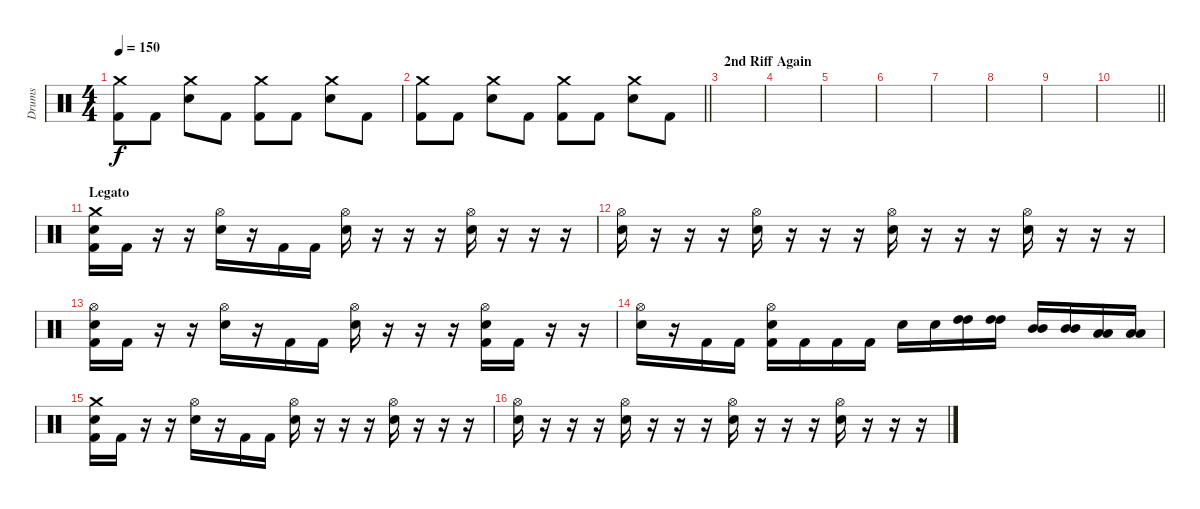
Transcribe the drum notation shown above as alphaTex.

\track ("Drums" "Drums") {instrument percussion}
\staff {score}
\articulation defaults
\ts (4 4)
\tempo 150
\clef neutral
\ks c
("Crash medium (hit)" "Kick (hit) 2").8{dy f} "Kick (hit) 2".8 ("Crash medium (hit)" "Electric Snare (hit)").8 "Kick (hit) 2".8 ("Crash medium (hit)" "Kick (hit) 2").8 "Kick (hit) 2".8 ("Crash medium (hit)" "Electric Snare (hit)").8 "Kick (hit) 2".8 |
\barLineRight lightlight
("Crash medium (hit)" "Kick (hit) 2").8 "Kick (hit) 2".8 ("Crash medium (hit)" "Electric Snare (hit)").8 "Kick (hit) 2".8 ("Crash medium (hit)" "Kick (hit) 2").8 "Kick (hit) 2".8 ("Crash medium (hit)" "Electric Snare (hit)").8 "Kick (hit) 2".8 |
\section ("" "2nd Riff Again ")
|
|
|
|
|
|
|
\barLineRight lightlight
|
\section ("" "Legato")
("Crash medium (hit)" "Electric Snare (hit)" "Kick (hit) 2").16 "Kick (hit) 2".16 r.16 r.16 ("Hi-Hat (open)" "Electric Snare (hit)").16 r.16 "Kick (hit) 2".16 "Kick (hit) 2".16 ("Hi-Hat (open)" "Electric Snare (hit)").16 r.16 r.16 r.16 ("Hi-Hat (open)" "Electric Snare (hit)").16 r.16 r.16 r.16 |
("Hi-Hat (open)" "Electric Snare (hit)").16 r.16 r.16 r.16 ("Hi-Hat (open)" "Electric Snare (hit)").16 r.16 r.16 r.16 ("Hi-Hat (open)" "Electric Snare (hit)").16 r.16 r.16 r.16 ("Hi-Hat (open)" "Electric Snare (hit)").16 r.16 r.16 r.16 |
("Hi-Hat (open)" "Electric Snare (hit)" "Kick (hit) 2").16 "Kick (hit) 2".16 r.16 r.16 ("Hi-Hat (open)" "Electric Snare (hit)").16 r.16 "Kick (hit) 2".16 "Kick (hit) 2".16 ("Hi-Hat (open)" "Electric Snare (hit)").16 r.16 r.16 r.16 ("Hi-Hat (open)" "Electric Snare (hit)" "Kick (hit) 2").16 "Kick (hit) 2".16 r.16 r.16 |
("Hi-Hat (open)" "Electric Snare (hit)").16 r.16 "Kick (hit) 2".16 "Kick (hit) 2".16 ("Hi-Hat (open)" "Electric Snare (hit)" "Kick (hit) 2").16 "Kick (hit) 2".16 "Kick (hit) 2".16 "Kick (hit) 2".16 "Electric Snare (hit)".16 "Electric Snare (hit)".16 ("High Tom (hit)" "High Tom (hit)").16 ("High Tom (hit)" "High Tom (hit)").16 ("Mid Tom (hit)" "Mid Tom (hit)").16 ("Mid Tom (hit)" "Mid Tom (hit)").16 ("Low Tom (hit)" "Low Tom (hit)").16 ("Low Tom (hit)" "Low Tom (hit)").16 |
("Crash medium (hit)" "Electric Snare (hit)" "Kick (hit) 2").16 "Kick (hit) 2".16 r.16 r.16 ("Hi-Hat (open)" "Electric Snare (hit)").16 r.16 "Kick (hit) 2".16 "Kick (hit) 2".16 ("Hi-Hat (open)" "Electric Snare (hit)").16 r.16 r.16 r.16 ("Hi-Hat (open)" "Electric Snare (hit)").16 r.16 r.16 r.16 |
("Hi-Hat (open)" "Electric Snare (hit)").16 r.16 r.16 r.16 ("Hi-Hat (open)" "Electric Snare (hit)").16 r.16 r.16 r.16 ("Hi-Hat (open)" "Electric Snare (hit)").16 r.16 r.16 r.16 ("Hi-Hat (open)" "Electric Snare (hit)").16 r.16 r.16 r.16
